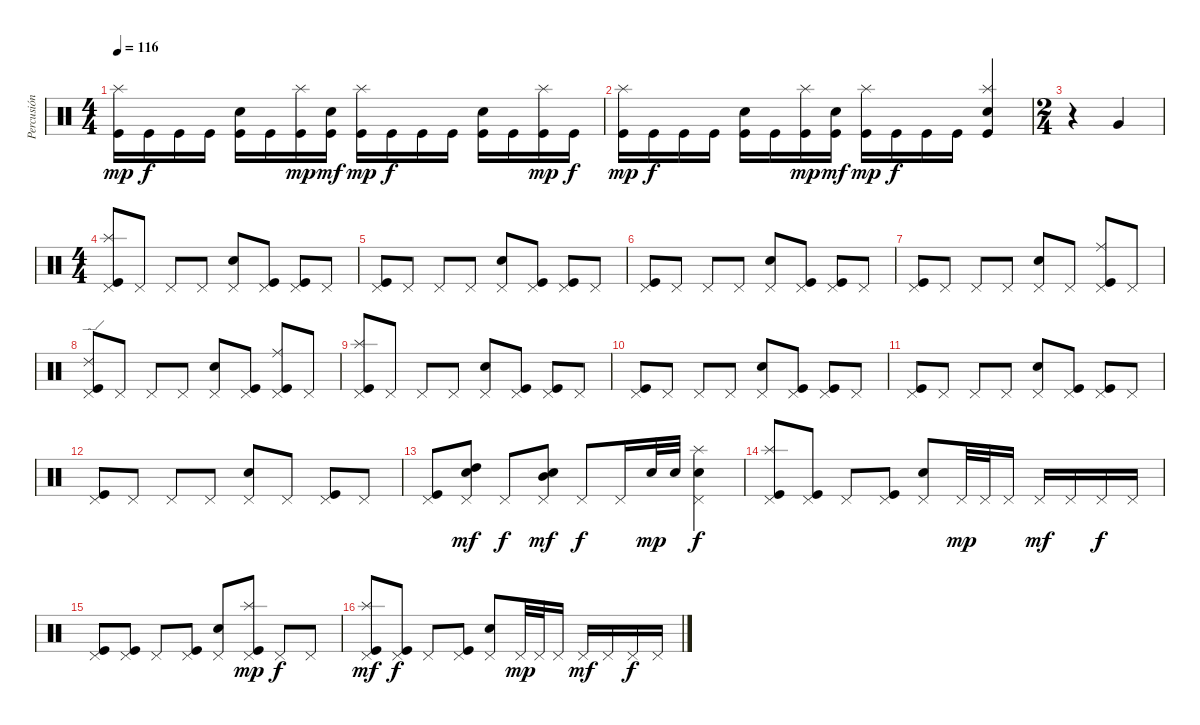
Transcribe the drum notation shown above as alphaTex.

\track ("Percusión" "Percusión") {instrument percussion}
\staff {score}
\articulation defaults
\ts (4 4)
\tempo 116
\clef neutral
\ks c
("Kick (hit)" "Splash (hit)").16{dy mp} "Kick (hit)".16{dy f} "Kick (hit)".16 "Kick (hit)".16 ("Kick (hit)" "Snare (hit) 2").16 "Kick (hit)".16 ("Kick (hit)" "Splash (hit)").16{dy mp} ("Kick (hit)" "Snare (hit) 2").16{dy mf} ("Kick (hit)" "Splash (hit)").16{dy mp} "Kick (hit)".16{dy f} "Kick (hit)".16 "Kick (hit)".16 ("Kick (hit)" "Snare (hit) 2").16 "Kick (hit)".16 ("Kick (hit)" "Splash (hit)").16{dy mp} "Kick (hit)".16{dy f} |
("Kick (hit)" "Splash (hit)").16{dy mp} "Kick (hit)".16{dy f} "Kick (hit)".16 "Kick (hit)".16 ("Kick (hit)" "Snare (hit) 2").16 "Kick (hit)".16 ("Kick (hit)" "Splash (hit)").16{dy mp} ("Kick (hit)" "Snare (hit) 2").16{dy mf} ("Kick (hit)" "Splash (hit)").16{dy mp} "Kick (hit)".16{dy f} "Kick (hit)".16 "Kick (hit)".16 ("Kick (hit)" "Snare (hit) 2" "Splash (hit)").4 |
\ts (2 4)
r.4 "Very Low Tom (hit)".4 |
\ts (4 4)
("Kick (hit)" "Splash (hit)" "Pedal Hi-Hat (hit)").8 "Pedal Hi-Hat (hit)".8 "Pedal Hi-Hat (hit)".8 "Pedal Hi-Hat (hit)".8 ("Snare (hit) 2" "Pedal Hi-Hat (hit)").8 ("Kick (hit)" "Pedal Hi-Hat (hit)").8 ("Kick (hit)" "Pedal Hi-Hat (hit)").8 "Pedal Hi-Hat (hit)".8 |
("Kick (hit)" "Pedal Hi-Hat (hit)").8 "Pedal Hi-Hat (hit)".8 "Pedal Hi-Hat (hit)".8 "Pedal Hi-Hat (hit)".8 ("Snare (hit) 2" "Pedal Hi-Hat (hit)").8 ("Kick (hit)" "Pedal Hi-Hat (hit)").8 ("Kick (hit)" "Pedal Hi-Hat (hit)").8 "Pedal Hi-Hat (hit)".8 |
("Kick (hit)" "Pedal Hi-Hat (hit)").8 "Pedal Hi-Hat (hit)".8 "Pedal Hi-Hat (hit)".8 "Pedal Hi-Hat (hit)".8 ("Snare (hit) 2" "Pedal Hi-Hat (hit)").8 ("Kick (hit)" "Pedal Hi-Hat (hit)").8 ("Kick (hit)" "Pedal Hi-Hat (hit)").8 "Pedal Hi-Hat (hit)".8 |
("Kick (hit)" "Pedal Hi-Hat (hit)").8 "Pedal Hi-Hat (hit)".8 "Pedal Hi-Hat (hit)".8 "Pedal Hi-Hat (hit)".8 ("Snare (hit) 2" "Pedal Hi-Hat (hit)").8 "Pedal Hi-Hat (hit)".8 ("Kick (hit)" "Ride (middle)" "Pedal Hi-Hat (hit)").8 "Pedal Hi-Hat (hit)".8 |
("Kick (hit)" "Ride (edge) 2" "Pedal Hi-Hat (hit)").8 "Pedal Hi-Hat (hit)".8 "Pedal Hi-Hat (hit)".8 "Pedal Hi-Hat (hit)".8 ("Snare (hit) 2" "Pedal Hi-Hat (hit)").8 ("Kick (hit)" "Pedal Hi-Hat (hit)").8 ("Kick (hit)" "Ride (middle)" "Pedal Hi-Hat (hit)").8 "Pedal Hi-Hat (hit)".8 |
("Kick (hit)" "Splash (hit)" "Pedal Hi-Hat (hit)").8 "Pedal Hi-Hat (hit)".8 "Pedal Hi-Hat (hit)".8 "Pedal Hi-Hat (hit)".8 ("Snare (hit) 2" "Pedal Hi-Hat (hit)").8 ("Kick (hit)" "Pedal Hi-Hat (hit)").8 ("Kick (hit)" "Pedal Hi-Hat (hit)").8 "Pedal Hi-Hat (hit)".8 |
("Kick (hit)" "Pedal Hi-Hat (hit)").8 "Pedal Hi-Hat (hit)".8 "Pedal Hi-Hat (hit)".8 "Pedal Hi-Hat (hit)".8 ("Snare (hit) 2" "Pedal Hi-Hat (hit)").8 ("Kick (hit)" "Pedal Hi-Hat (hit)").8 ("Kick (hit)" "Pedal Hi-Hat (hit)").8 "Pedal Hi-Hat (hit)".8 |
("Kick (hit)" "Pedal Hi-Hat (hit)").8 "Pedal Hi-Hat (hit)".8 "Pedal Hi-Hat (hit)".8 "Pedal Hi-Hat (hit)".8 ("Snare (hit) 2" "Pedal Hi-Hat (hit)").8 ("Kick (hit)" "Pedal Hi-Hat (hit)").8 ("Kick (hit)" "Pedal Hi-Hat (hit)").8 "Pedal Hi-Hat (hit)".8 |
("Kick (hit)" "Pedal Hi-Hat (hit)").8 "Pedal Hi-Hat (hit)".8 "Pedal Hi-Hat (hit)".8 "Pedal Hi-Hat (hit)".8 ("Snare (hit) 2" "Pedal Hi-Hat (hit)").8 "Pedal Hi-Hat (hit)".8 ("Kick (hit)" "Pedal Hi-Hat (hit)").8 "Pedal Hi-Hat (hit)".8 |
("Kick (hit)" "Pedal Hi-Hat (hit)").8 ("Snare (hit) 2" "High Tom (hit)" "Pedal Hi-Hat (hit)").8{dy mf} "Pedal Hi-Hat (hit)".8{dy f} ("Snare (hit) 2" "Mid Tom (hit)" "Pedal Hi-Hat (hit)").8{dy mf} "Pedal Hi-Hat (hit)".8{dy f} "Pedal Hi-Hat (hit)".16 "Snare (hit) 2".32{dy mp} "Snare (hit) 2".32 ("Snare (hit) 2" "Splash (hit)" "Pedal Hi-Hat (hit)").4{dy f} |
("Kick (hit)" "Splash (hit)" "Pedal Hi-Hat (hit)").8 ("Kick (hit)" "Pedal Hi-Hat (hit)").8 "Pedal Hi-Hat (hit)".8 ("Kick (hit)" "Pedal Hi-Hat (hit)").8 ("Snare (hit) 2" "Pedal Hi-Hat (hit)").8 "Pedal Hi-Hat (hit)".32{dy mp} "Pedal Hi-Hat (hit)".32 "Pedal Hi-Hat (hit)".16 "Pedal Hi-Hat (hit)".16{dy mf} "Pedal Hi-Hat (hit)".16 "Pedal Hi-Hat (hit)".16{dy f} "Pedal Hi-Hat (hit)".16 |
("Kick (hit)" "Pedal Hi-Hat (hit)").8 ("Kick (hit)" "Pedal Hi-Hat (hit)").8 "Pedal Hi-Hat (hit)".8 ("Kick (hit)" "Pedal Hi-Hat (hit)").8 ("Snare (hit) 2" "Pedal Hi-Hat (hit)").8 ("Kick (hit)" "Splash (hit)" "Pedal Hi-Hat (hit)").8{dy mp} "Pedal Hi-Hat (hit)".8{dy f} "Pedal Hi-Hat (hit)".8 |
("Kick (hit)" "Splash (hit)" "Pedal Hi-Hat (hit)").8{dy mf} ("Kick (hit)" "Pedal Hi-Hat (hit)").8{dy f} "Pedal Hi-Hat (hit)".8 ("Kick (hit)" "Pedal Hi-Hat (hit)").8 ("Snare (hit) 2" "Pedal Hi-Hat (hit)").8 "Pedal Hi-Hat (hit)".32{dy mp} "Pedal Hi-Hat (hit)".32 "Pedal Hi-Hat (hit)".16 "Pedal Hi-Hat (hit)".16{dy mf} "Pedal Hi-Hat (hit)".16 "Pedal Hi-Hat (hit)".16{dy f} "Pedal Hi-Hat (hit)".16
